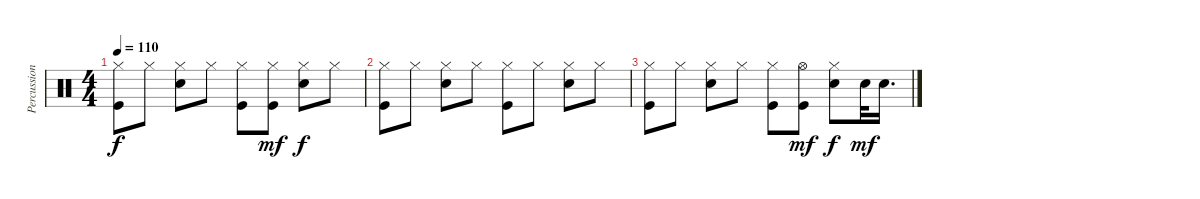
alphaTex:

\track ("Percussion" "Percussion") {instrument percussion}
\staff {score}
\articulation defaults
\ts (4 4)
\tempo 110
\clef neutral
\ks c
("Hi-Hat (closed)" "Kick (hit)").8{dy f} "Hi-Hat (closed)".8 ("Hi-Hat (closed)" "Snare (hit) 2").8 "Hi-Hat (closed)".8 ("Hi-Hat (closed)" "Kick (hit)").8 ("Hi-Hat (closed)" "Kick (hit)").8{dy mf} ("Hi-Hat (closed)" "Snare (hit) 2").8{dy f} "Hi-Hat (closed)".8 |
("Hi-Hat (closed)" "Kick (hit)").8 "Hi-Hat (closed)".8 ("Hi-Hat (closed)" "Snare (hit) 2").8 "Hi-Hat (closed)".8 ("Hi-Hat (closed)" "Kick (hit)").8 "Hi-Hat (closed)".8 ("Hi-Hat (closed)" "Snare (hit) 2").8 "Hi-Hat (closed)".8 |
("Hi-Hat (closed)" "Kick (hit)").8 "Hi-Hat (closed)".8 ("Hi-Hat (closed)" "Snare (hit) 2").8 "Hi-Hat (closed)".8 ("Hi-Hat (closed)" "Kick (hit)").8 ("Hi-Hat (open)" "Kick (hit)").8{dy mf} ("Hi-Hat (closed)" "Snare (hit) 2").8{dy f} "Snare (hit) 2".32{dy mf} "Snare (hit) 2".16{d}
